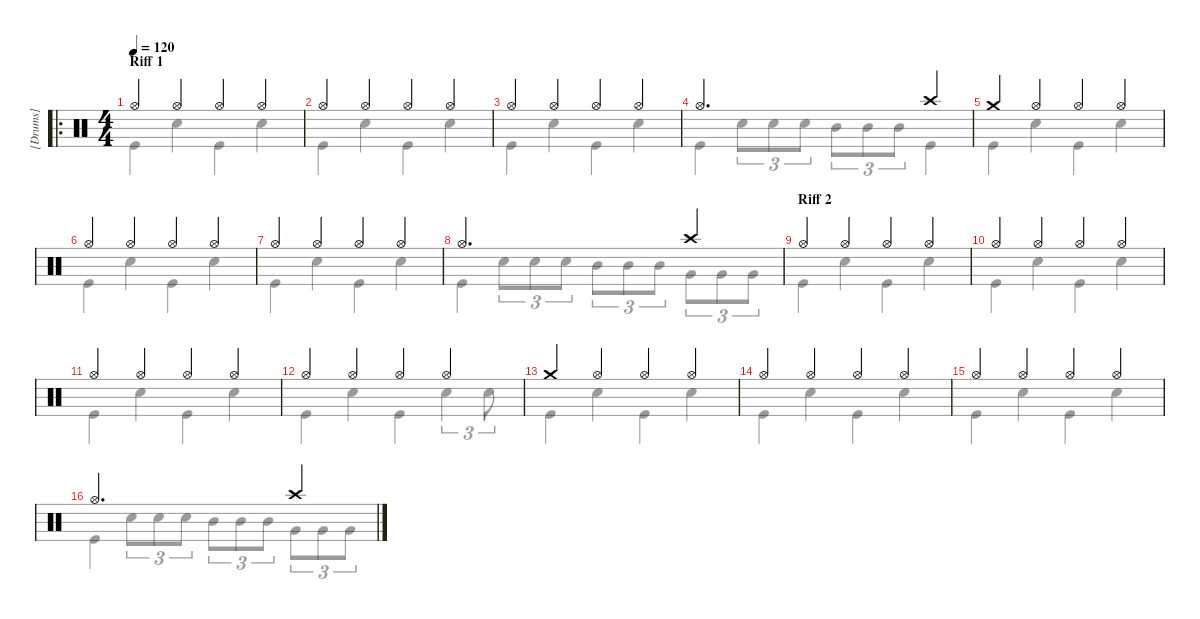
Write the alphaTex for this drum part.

\hideDynamics
\bracketExtendMode groupsimilarinstruments
\firstSystemTrackNameMode fullname
\otherSystemsTrackNameMode fullname
\otherSystemsTrackNameOrientation horizontal
\track ("[Drums]" "Drums") {instrument percussion}
\staff {score}
\articulation defaults
\voice
\ro
\ts (4 4)
\section ("" "Riff 1")
\tempo 120
\clef neutral
\scale
0.366667
\ks c "Hi-Hat (open)".4{dy ff} "Hi-Hat (open)".4 "Hi-Hat (open)".4 "Hi-Hat (open)".4
|
\scale
0.333333 "Hi-Hat (open)".4 "Hi-Hat (open)".4 "Hi-Hat (open)".4 "Hi-Hat (open)".4 |
\scale
0.333333 "Hi-Hat (open)".4 "Hi-Hat (open)".4 "Hi-Hat (open)".4 "Hi-Hat (open)".4 |
\scale
0.333333 "Hi-Hat (open)".2{d} "Crash high (hit)".4 |
\scale
0.333333 "Crash medium (hit)".4 "Hi-Hat (open)".4 "Hi-Hat (open)".4 "Hi-Hat (open)".4 |
\scale
0.333333 "Hi-Hat (open)".4 "Hi-Hat (open)".4 "Hi-Hat (open)".4 "Hi-Hat (open)".4 |
\scale
0.333333 "Hi-Hat (open)".4 "Hi-Hat (open)".4 "Hi-Hat (open)".4 "Hi-Hat (open)".4 |
\scale
0.333333 "Hi-Hat (open)".2{d} "Crash high (hit)".4 |
\section ("" "Riff 2")
\scale
0.333333 "Hi-Hat (open)".4 "Hi-Hat (open)".4 "Hi-Hat (open)".4 "Hi-Hat (open)".4 |
\scale
0.333333 "Hi-Hat (open)".4 "Hi-Hat (open)".4 "Hi-Hat (open)".4 "Hi-Hat (open)".4 |
\scale
0.333333 "Hi-Hat (open)".4 "Hi-Hat (open)".4 "Hi-Hat (open)".4 "Hi-Hat (open)".4 |
\scale
0.333333 "Hi-Hat (open)".4 "Hi-Hat (open)".4 "Hi-Hat (open)".4 "Hi-Hat (open)".4 |
\scale
0.333333 "Crash medium (hit)".4 "Hi-Hat (open)".4 "Hi-Hat (open)".4 "Hi-Hat (open)".4 |
\scale
0.333333 "Hi-Hat (open)".4 "Hi-Hat (open)".4 "Hi-Hat (open)".4 "Hi-Hat (open)".4 |
\scale
0.333333 "Hi-Hat (open)".4 "Hi-Hat (open)".4 "Hi-Hat (open)".4 "Hi-Hat (open)".4 |
\scale
0.333333 "Hi-Hat (open)".2{d} "Crash high (hit)".4
\voice
\clef neutral
\ottava regular
\simile none
\scale
0.366667
\ks c "Kick (hit)".4{dy f} "Snare (hit) 2".4 "Kick (hit)".4 "Snare (hit) 2".4
|
\scale
0.333333 "Kick (hit)".4 "Snare (hit) 2".4 "Kick (hit)".4 "Snare (hit) 2".4 |
\scale
0.333333 "Kick (hit)".4 "Snare (hit) 2".4 "Kick (hit)".4 "Snare (hit) 2".4 |
\scale
0.333333 "Kick (hit)".4 "Snare (hit) 2".8{tu (3 2)} "Snare (hit) 2".8{tu (3 2)} "Snare (hit) 2".8{tu (3 2)} "Mid Tom (hit)".8{tu (3 2)} "Mid Tom (hit)".8{tu (3 2)} "Mid Tom (hit)".8{tu (3 2)} "Kick (hit)".4 |
\scale
0.333333 "Kick (hit)".4 "Snare (hit) 2".4 "Kick (hit)".4 "Snare (hit) 2".4 |
\scale
0.333333 "Kick (hit)".4 "Snare (hit) 2".4 "Kick (hit)".4 "Snare (hit) 2".4 |
\scale
0.333333 "Kick (hit)".4 "Snare (hit) 2".4 "Kick (hit)".4 "Snare (hit) 2".4 |
\scale
0.333333 "Kick (hit)".4 "Snare (hit) 2".8{tu (3 2)} "Snare (hit) 2".8{tu (3 2)} "Snare (hit) 2".8{tu (3 2)} "Mid Tom (hit)".8{tu (3 2)} "Mid Tom (hit)".8{tu (3 2)} "Mid Tom (hit)".8{tu (3 2)} "Very Low Tom (hit)".8{tu (3 2)} "Very Low Tom (hit)".8{tu (3 2)} "Very Low Tom (hit)".8{tu (3 2)} |
\scale
0.333333 "Kick (hit)".4 "Snare (hit) 2".4 "Kick (hit)".4 "Snare (hit) 2".4 |
\scale
0.333333 "Kick (hit)".4 "Snare (hit) 2".4 "Kick (hit)".4 "Snare (hit) 2".4 |
\scale
0.333333 "Kick (hit)".4 "Snare (hit) 2".4 "Kick (hit)".4 "Snare (hit) 2".4 |
\scale
0.333333 "Kick (hit)".4 "Snare (hit) 2".4 "Kick (hit)".4 "Snare (hit) 2".4{tu (3 2)} "Snare (hit) 2".8{tu (3 2)} |
\scale
0.333333 "Kick (hit)".4 "Snare (hit) 2".4 "Kick (hit)".4 "Snare (hit) 2".4 |
\scale
0.333333 "Kick (hit)".4 "Snare (hit) 2".4 "Kick (hit)".4 "Snare (hit) 2".4 |
\scale
0.333333 "Kick (hit)".4 "Snare (hit) 2".4 "Kick (hit)".4 "Snare (hit) 2".4 |
\scale
0.333333 "Kick (hit)".4 "Snare (hit) 2".8{tu (3 2)} "Snare (hit) 2".8{tu (3 2)} "Snare (hit) 2".8{tu (3 2)} "Mid Tom (hit)".8{tu (3 2)} "Mid Tom (hit)".8{tu (3 2)} "Mid Tom (hit)".8{tu (3 2)} "Very Low Tom (hit)".8{tu (3 2)} "Very Low Tom (hit)".8{tu (3 2)} "Very Low Tom (hit)".8{tu (3 2)}
